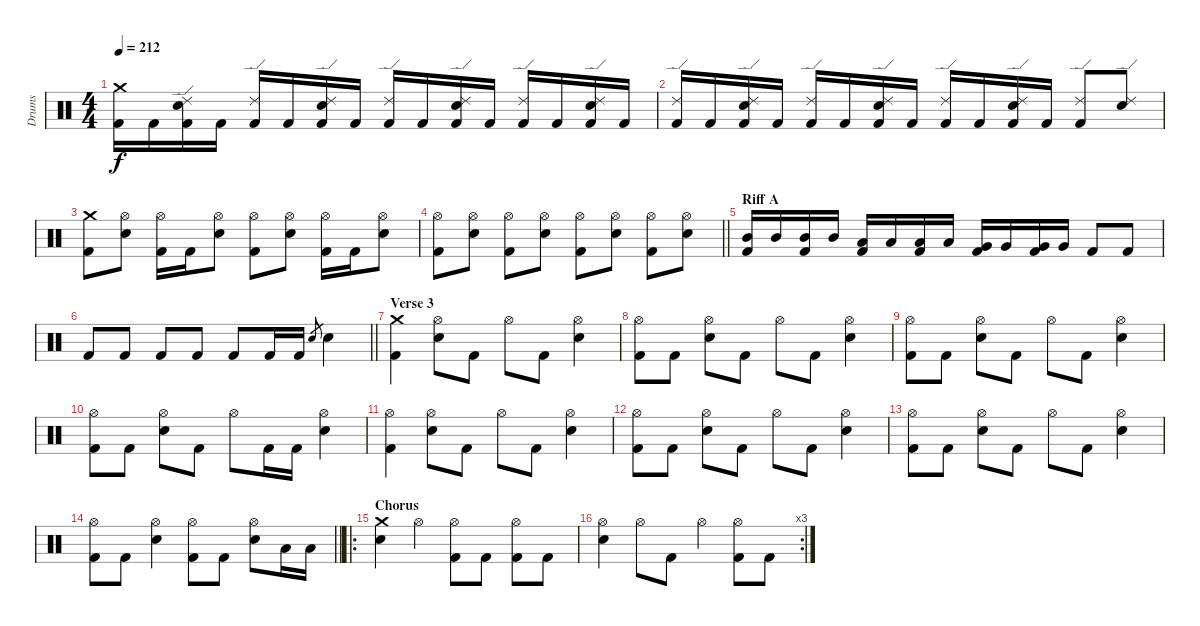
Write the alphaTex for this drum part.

\track ("Drums" "Drums") {instrument percussion}
\staff {score}
\articulation defaults
\ts (4 4)
\tempo 212
\clef neutral
\ks c
("Crash medium (hit)" "Kick (hit) 2").16{dy f} "Kick (hit) 2".16 ("Ride (edge) 2" "Electric Snare (hit)" "Kick (hit) 2").16 "Kick (hit) 2".16 ("Ride (edge) 2" "Kick (hit) 2").16 "Kick (hit) 2".16 ("Ride (edge) 2" "Electric Snare (hit)" "Kick (hit) 2").16 "Kick (hit) 2".16 ("Ride (edge) 2" "Kick (hit) 2").16 "Kick (hit) 2".16 ("Ride (edge) 2" "Electric Snare (hit)" "Kick (hit) 2").16 "Kick (hit) 2".16 ("Ride (edge) 2" "Kick (hit) 2").16 "Kick (hit) 2".16 ("Ride (edge) 2" "Electric Snare (hit)" "Kick (hit) 2").16 "Kick (hit) 2".16 |
("Ride (edge) 2" "Kick (hit) 2").16 "Kick (hit) 2".16 ("Ride (edge) 2" "Electric Snare (hit)" "Kick (hit) 2").16 "Kick (hit) 2".16 ("Ride (edge) 2" "Kick (hit) 2").16 "Kick (hit) 2".16 ("Ride (edge) 2" "Electric Snare (hit)" "Kick (hit) 2").16 "Kick (hit) 2".16 ("Ride (edge) 2" "Kick (hit) 2").16 "Kick (hit) 2".16 ("Ride (edge) 2" "Electric Snare (hit)" "Kick (hit) 2").16 "Kick (hit) 2".16 ("Ride (edge) 2" "Kick (hit) 2").8 ("Ride (edge) 2" "Electric Snare (hit)").8 |
("Crash medium (hit)" "Kick (hit) 2").8 ("Hi-Hat (open)" "Electric Snare (hit)").8 ("Hi-Hat (open)" "Kick (hit) 2").16 "Kick (hit) 2".16 ("Hi-Hat (open)" "Electric Snare (hit)").8 ("Hi-Hat (open)" "Kick (hit) 2").8 ("Hi-Hat (open)" "Electric Snare (hit)").8 ("Hi-Hat (open)" "Kick (hit) 2").16 "Kick (hit) 2".16 ("Hi-Hat (open)" "Electric Snare (hit)").8 |
\barLineRight lightlight
("Hi-Hat (open)" "Kick (hit) 2").8 ("Hi-Hat (open)" "Electric Snare (hit)").8 ("Hi-Hat (open)" "Kick (hit) 2").8 ("Hi-Hat (open)" "Electric Snare (hit)").8 ("Hi-Hat (open)" "Kick (hit) 2").8 ("Hi-Hat (open)" "Electric Snare (hit)").8 ("Hi-Hat (open)" "Kick (hit) 2").8 ("Hi-Hat (open)" "Electric Snare (hit)").8 |
\section ("" "Riff A")
("Mid Tom (hit)" "Kick (hit) 2").16 "Mid Tom (hit)".16 ("Mid Tom (hit)" "Kick (hit) 2").16 "Mid Tom (hit)".16 ("Low Tom (hit)" "Kick (hit) 2").16 "Low Tom (hit)".16 ("Low Tom (hit)" "Kick (hit) 2").16 "Low Tom (hit)".16 ("Very Low Tom (hit)" "Kick (hit) 2").16 "Very Low Tom (hit)".16 ("Very Low Tom (hit)" "Kick (hit) 2").16 "Very Low Tom (hit)".16 "Kick (hit) 2".8 "Kick (hit) 2".8 |
\barLineRight lightlight "Kick (hit) 2".8 "Kick (hit) 2".8 "Kick (hit) 2".8 "Kick (hit) 2".8 "Kick (hit) 2".8 "Kick (hit) 2".16 "Kick (hit) 2".16 "Electric Snare (hit)".8{gr} "Electric Snare (hit)".4
|
\section ("" "Verse 3")
("Crash medium (hit)" "Kick (hit) 2").4 ("Hi-Hat (open)" "Electric Snare (hit)").8 "Kick (hit) 2".8 "Hi-Hat (open)".8 "Kick (hit) 2".8 ("Hi-Hat (open)" "Electric Snare (hit)").4 |
("Hi-Hat (open)" "Kick (hit) 2").8 "Kick (hit) 2".8 ("Hi-Hat (open)" "Electric Snare (hit)").8 "Kick (hit) 2".8 "Hi-Hat (open)".8 "Kick (hit) 2".8 ("Hi-Hat (open)" "Electric Snare (hit)").4 |
("Hi-Hat (open)" "Kick (hit) 2").8 "Kick (hit) 2".8 ("Hi-Hat (open)" "Electric Snare (hit)").8 "Kick (hit) 2".8 "Hi-Hat (open)".8 "Kick (hit) 2".8 ("Hi-Hat (open)" "Electric Snare (hit)").4 |
("Hi-Hat (open)" "Kick (hit) 2").8 "Kick (hit) 2".8 ("Hi-Hat (open)" "Electric Snare (hit)").8 "Kick (hit) 2".8 "Hi-Hat (open)".8 "Kick (hit) 2".16 "Kick (hit) 2".16 ("Hi-Hat (open)" "Electric Snare (hit)").4 |
("Hi-Hat (open)" "Kick (hit) 2").4 ("Hi-Hat (open)" "Electric Snare (hit)").8 "Kick (hit) 2".8 "Hi-Hat (open)".8 "Kick (hit) 2".8 ("Hi-Hat (open)" "Electric Snare (hit)").4 |
("Hi-Hat (open)" "Kick (hit) 2").8 "Kick (hit) 2".8 ("Hi-Hat (open)" "Electric Snare (hit)").8 "Kick (hit) 2".8 "Hi-Hat (open)".8 "Kick (hit) 2".8 ("Hi-Hat (open)" "Electric Snare (hit)").4 |
("Hi-Hat (open)" "Kick (hit) 2").8 "Kick (hit) 2".8 ("Hi-Hat (open)" "Electric Snare (hit)").8 "Kick (hit) 2".8 "Hi-Hat (open)".8 "Kick (hit) 2".8 ("Hi-Hat (open)" "Electric Snare (hit)").4 |
\barLineRight lightlight
("Hi-Hat (open)" "Kick (hit) 2").8 "Kick (hit) 2".8 ("Hi-Hat (open)" "Electric Snare (hit)").4 ("Hi-Hat (open)" "Kick (hit) 2").8 "Kick (hit) 2".8 ("Hi-Hat (open)" "Electric Snare (hit)").8 "Low Tom (hit)".16 "Low Tom (hit)".16 |
\ro
\section ("" "Chorus")
("Crash medium (hit)" "Electric Snare (hit)").4 "Hi-Hat (open)".4 ("Hi-Hat (open)" "Kick (hit) 2").8 "Kick (hit) 2".8 ("Hi-Hat (open)" "Kick (hit) 2").8 "Kick (hit) 2".8 |
\rc 3
("Hi-Hat (open)" "Electric Snare (hit)").4 "Hi-Hat (open)".8 "Kick (hit) 2".8 "Hi-Hat (open)".4 ("Hi-Hat (open)" "Kick (hit) 2").8 "Kick (hit) 2".8
